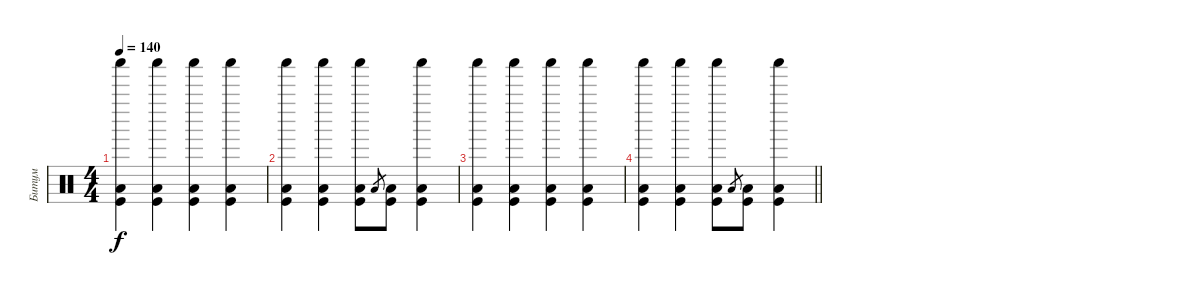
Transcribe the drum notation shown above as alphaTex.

\track ("Битум" "Битум") {instrument percussion}
\staff {score}
\articulation defaults
\ts (4 4)
\tempo 140
\clef neutral
\ks c
("Shaker (hit)" "Low Floor Tom (hit)" "Kick (hit)").4{dy f} ("Shaker (hit)" "Low Floor Tom (hit)" "Kick (hit)").4 ("Shaker (hit)" "Low Floor Tom (hit)" "Kick (hit)").4 ("Shaker (hit)" "Low Floor Tom (hit)" "Kick (hit)").4 |
("Shaker (hit)" "Low Floor Tom (hit)" "Kick (hit)").4 ("Shaker (hit)" "Low Floor Tom (hit)" "Kick (hit)").4 ("Shaker (hit)" "Low Floor Tom (hit)" "Kick (hit)").8 "Low Floor Tom (hit)".8{gr} ("Low Floor Tom (hit)" "Kick (hit)").8 ("Shaker (hit)" "Low Floor Tom (hit)" "Kick (hit)").4 |
("Shaker (hit)" "Low Floor Tom (hit)" "Kick (hit)").4 ("Shaker (hit)" "Low Floor Tom (hit)" "Kick (hit)").4 ("Shaker (hit)" "Low Floor Tom (hit)" "Kick (hit)").4 ("Shaker (hit)" "Low Floor Tom (hit)" "Kick (hit)").4 |
\barLineRight lightlight
("Shaker (hit)" "Low Floor Tom (hit)" "Kick (hit)").4 ("Shaker (hit)" "Low Floor Tom (hit)" "Kick (hit)").4 ("Shaker (hit)" "Low Floor Tom (hit)" "Kick (hit)").8 "Low Floor Tom (hit)".8{gr} ("Low Floor Tom (hit)" "Kick (hit)").8 ("Shaker (hit)" "Low Floor Tom (hit)" "Kick (hit)").4
